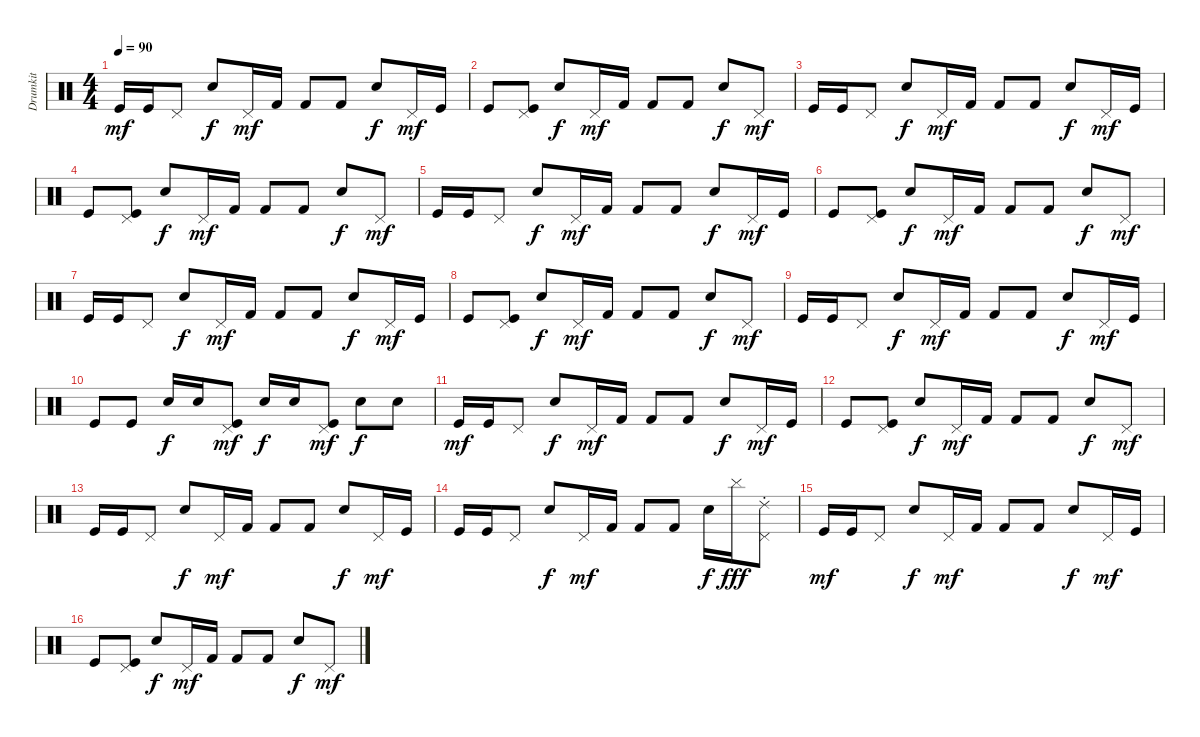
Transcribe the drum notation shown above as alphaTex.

\track ("Drumkit" "Drumkit") {instrument percussion}
\staff {score}
\articulation defaults
\ts (4 4)
\tempo 90
\clef neutral
\ks c "Kick (hit)".16{dy mf} "Kick (hit)".16 "Pedal Hi-Hat (hit)".8 "Snare (hit) 2".8{dy f} "Pedal Hi-Hat (hit)".16{dy mf} "Kick (hit) 2".16 "Kick (hit) 2".8 "Kick (hit) 2".8 "Snare (hit) 2".8{dy f} "Pedal Hi-Hat (hit)".16{dy mf} "Kick (hit)".16
|
"Kick (hit)".8 ("Pedal Hi-Hat (hit)" "Kick (hit)").8 "Snare (hit) 2".8{dy f} "Pedal Hi-Hat (hit)".16{dy mf} "Kick (hit) 2".16 "Kick (hit) 2".8 "Kick (hit) 2".8 "Snare (hit) 2".8{dy f} "Pedal Hi-Hat (hit)".8{dy mf} |
"Kick (hit)".16 "Kick (hit)".16 "Pedal Hi-Hat (hit)".8 "Snare (hit) 2".8{dy f} "Pedal Hi-Hat (hit)".16{dy mf} "Kick (hit) 2".16 "Kick (hit) 2".8 "Kick (hit) 2".8 "Snare (hit) 2".8{dy f} "Pedal Hi-Hat (hit)".16{dy mf} "Kick (hit)".16 |
"Kick (hit)".8 ("Pedal Hi-Hat (hit)" "Kick (hit)").8 "Snare (hit) 2".8{dy f} "Pedal Hi-Hat (hit)".16{dy mf} "Kick (hit) 2".16 "Kick (hit) 2".8 "Kick (hit) 2".8 "Snare (hit) 2".8{dy f} "Pedal Hi-Hat (hit)".8{dy mf} |
"Kick (hit)".16 "Kick (hit)".16 "Pedal Hi-Hat (hit)".8 "Snare (hit) 2".8{dy f} "Pedal Hi-Hat (hit)".16{dy mf} "Kick (hit) 2".16 "Kick (hit) 2".8 "Kick (hit) 2".8 "Snare (hit) 2".8{dy f} "Pedal Hi-Hat (hit)".16{dy mf} "Kick (hit)".16 |
"Kick (hit)".8 ("Pedal Hi-Hat (hit)" "Kick (hit)").8 "Snare (hit) 2".8{dy f} "Pedal Hi-Hat (hit)".16{dy mf} "Kick (hit) 2".16 "Kick (hit) 2".8 "Kick (hit) 2".8 "Snare (hit) 2".8{dy f} "Pedal Hi-Hat (hit)".8{dy mf} |
"Kick (hit)".16 "Kick (hit)".16 "Pedal Hi-Hat (hit)".8 "Snare (hit) 2".8{dy f} "Pedal Hi-Hat (hit)".16{dy mf} "Kick (hit) 2".16 "Kick (hit) 2".8 "Kick (hit) 2".8 "Snare (hit) 2".8{dy f} "Pedal Hi-Hat (hit)".16{dy mf} "Kick (hit)".16 |
"Kick (hit)".8 ("Pedal Hi-Hat (hit)" "Kick (hit)").8 "Snare (hit) 2".8{dy f} "Pedal Hi-Hat (hit)".16{dy mf} "Kick (hit) 2".16 "Kick (hit) 2".8 "Kick (hit) 2".8 "Snare (hit) 2".8{dy f} "Pedal Hi-Hat (hit)".8{dy mf} |
"Kick (hit)".16 "Kick (hit)".16 "Pedal Hi-Hat (hit)".8 "Snare (hit) 2".8{dy f} "Pedal Hi-Hat (hit)".16{dy mf} "Kick (hit) 2".16 "Kick (hit) 2".8 "Kick (hit) 2".8 "Snare (hit) 2".8{dy f} "Pedal Hi-Hat (hit)".16{dy mf} "Kick (hit)".16 |
"Kick (hit)".8 "Kick (hit)".8 "Snare (hit) 2".16{dy f} "Snare (hit) 2".16 ("Kick (hit)" "Pedal Hi-Hat (hit)").8{dy mf} "Snare (hit) 2".16{dy f} "Snare (hit) 2".16 ("Kick (hit)" "Pedal Hi-Hat (hit)").8{dy mf} "Snare (hit) 2".8{dy f} "Snare (hit) 2".8 |
"Kick (hit)".16{dy mf} "Kick (hit)".16 "Pedal Hi-Hat (hit)".8 "Snare (hit) 2".8{dy f} "Pedal Hi-Hat (hit)".16{dy mf} "Kick (hit) 2".16 "Kick (hit) 2".8 "Kick (hit) 2".8 "Snare (hit) 2".8{dy f} "Pedal Hi-Hat (hit)".16{dy mf} "Kick (hit)".16 |
"Kick (hit)".8 ("Pedal Hi-Hat (hit)" "Kick (hit)").8 "Snare (hit) 2".8{dy f} "Pedal Hi-Hat (hit)".16{dy mf} "Kick (hit) 2".16 "Kick (hit) 2".8 "Kick (hit) 2".8 "Snare (hit) 2".8{dy f} "Pedal Hi-Hat (hit)".8{dy mf} |
"Kick (hit)".16 "Kick (hit)".16 "Pedal Hi-Hat (hit)".8 "Snare (hit) 2".8{dy f} "Pedal Hi-Hat (hit)".16{dy mf} "Kick (hit) 2".16 "Kick (hit) 2".8 "Kick (hit) 2".8 "Snare (hit) 2".8{dy f} "Pedal Hi-Hat (hit)".16{dy mf} "Kick (hit)".16 |
"Kick (hit)".16 "Kick (hit)".16 "Pedal Hi-Hat (hit)".8 "Snare (hit) 2".8{dy f} "Pedal Hi-Hat (hit)".16{dy mf} "Kick (hit) 2".16 "Kick (hit) 2".8 "Kick (hit) 2".8 "Snare (hit) 2".16{dy f} "Cymbal (hit)".16{dy fff} ("Pedal Hi-Hat (hit)" "Ride (choke) 2").8 |
"Kick (hit)".16{dy mf} "Kick (hit)".16 "Pedal Hi-Hat (hit)".8 "Snare (hit) 2".8{dy f} "Pedal Hi-Hat (hit)".16{dy mf} "Kick (hit) 2".16 "Kick (hit) 2".8 "Kick (hit) 2".8 "Snare (hit) 2".8{dy f} "Pedal Hi-Hat (hit)".16{dy mf} "Kick (hit)".16 |
"Kick (hit)".8 ("Pedal Hi-Hat (hit)" "Kick (hit)").8 "Snare (hit) 2".8{dy f} "Pedal Hi-Hat (hit)".16{dy mf} "Kick (hit) 2".16 "Kick (hit) 2".8 "Kick (hit) 2".8 "Snare (hit) 2".8{dy f} "Pedal Hi-Hat (hit)".8{dy mf}
